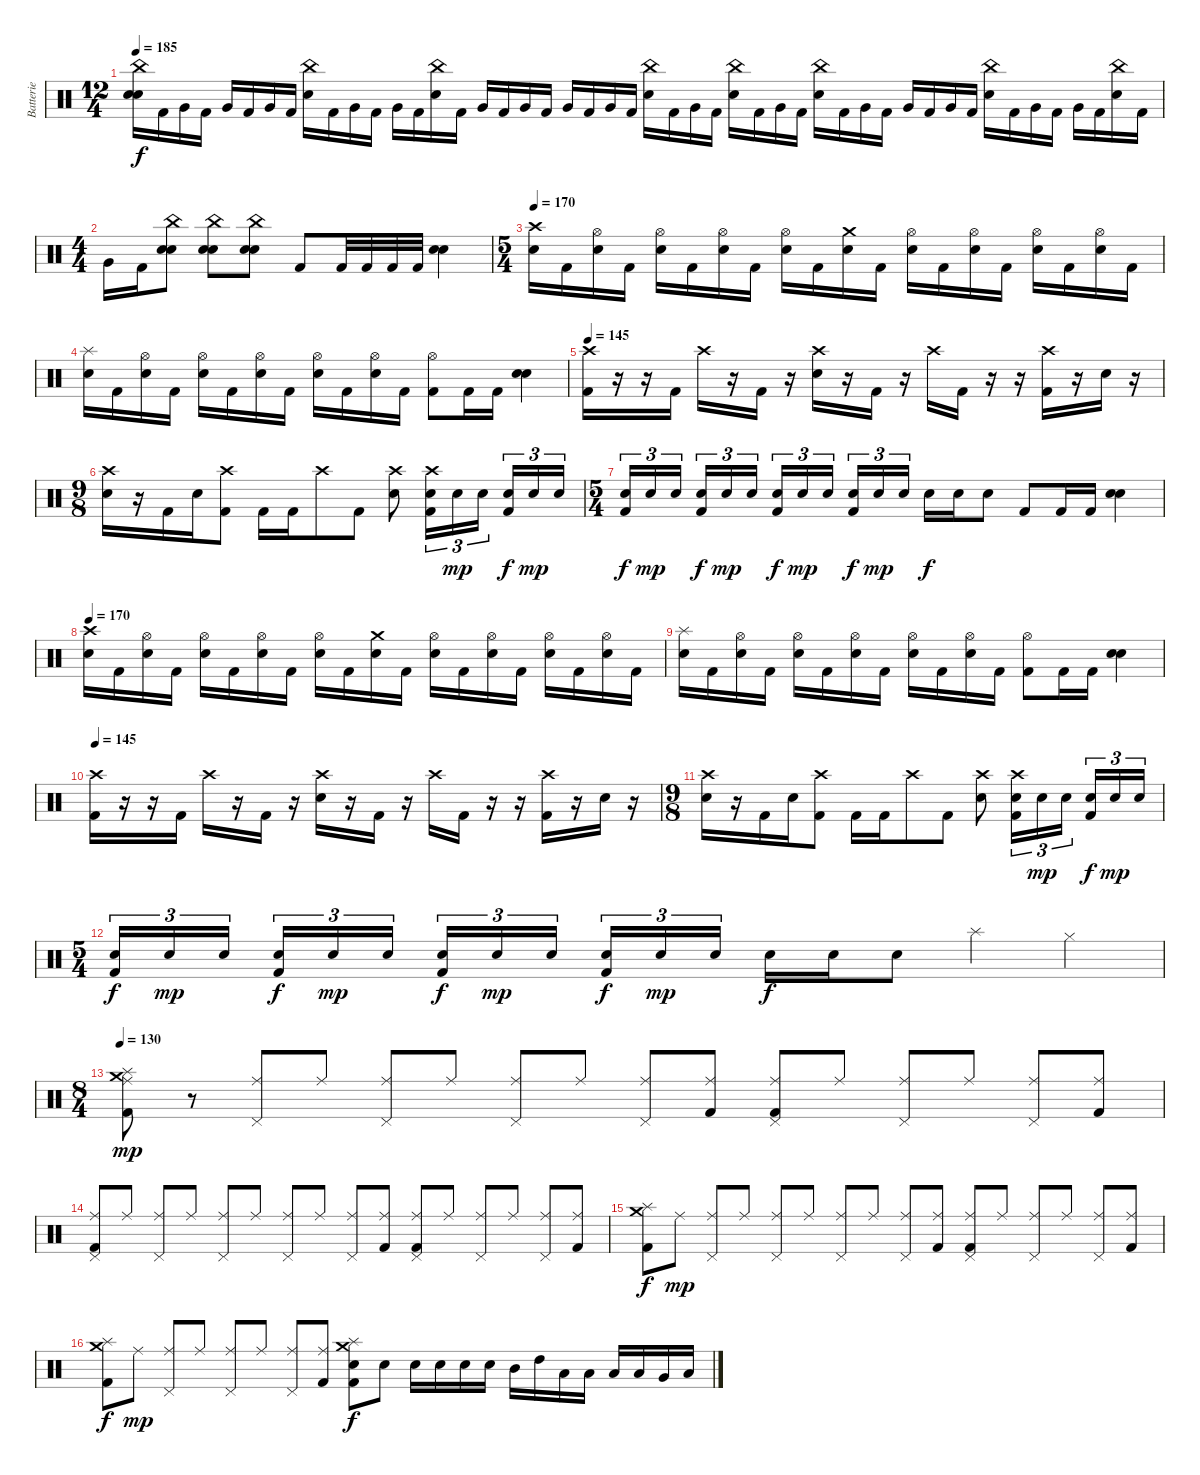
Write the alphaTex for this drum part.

\track ("Batterie" "Batterie") {instrument percussion}
\staff {score}
\articulation defaults
\ts (12 4)
\tempo 185
\clef neutral
\ks c
("China (hit)" "Electric Snare (hit)" "Electric Snare (hit)").16{dy f} "Kick (hit) 2".16 "Very Low Tom (hit)".16 "Kick (hit) 2".16 "Very Low Tom (hit)".16 "Kick (hit) 2".16 "Very Low Tom (hit)".16 "Kick (hit) 2".16 ("China (hit)" "Electric Snare (hit)").16 "Kick (hit) 2".16 "Very Low Tom (hit)".16 "Kick (hit) 2".16 "Very Low Tom (hit)".16 "Kick (hit) 2".16 ("China (hit)" "Electric Snare (hit)").16 "Kick (hit) 2".16 "Very Low Tom (hit)".16 "Kick (hit) 2".16 "Very Low Tom (hit)".16 "Kick (hit) 2".16 "Very Low Tom (hit)".16 "Kick (hit) 2".16 "Very Low Tom (hit)".16 "Kick (hit) 2".16 ("China (hit)" "Electric Snare (hit)").16 "Kick (hit) 2".16 "Very Low Tom (hit)".16 "Kick (hit) 2".16 ("China (hit)" "Electric Snare (hit)").16 "Kick (hit) 2".16 "Very Low Tom (hit)".16 "Kick (hit) 2".16 ("China (hit)" "Electric Snare (hit)").16 "Kick (hit) 2".16 "Very Low Tom (hit)".16 "Kick (hit) 2".16 "Very Low Tom (hit)".16 "Kick (hit) 2".16 "Very Low Tom (hit)".16 "Kick (hit) 2".16 ("China (hit)" "Electric Snare (hit)").16 "Kick (hit) 2".16 "Very Low Tom (hit)".16 "Kick (hit) 2".16 "Very Low Tom (hit)".16 "Kick (hit) 2".16 ("China (hit)" "Electric Snare (hit)").16 "Kick (hit) 2".16 |
\ts (4 4)
"Very Low Tom (hit)".16 "Kick (hit) 2".16 ("China (hit)" "Electric Snare (hit)" "Electric Snare (hit)").8 ("China (hit)" "Electric Snare (hit)" "Electric Snare (hit)").8 ("China (hit)" "Electric Snare (hit)" "Electric Snare (hit)").8 "Kick (hit) 2".8 "Kick (hit) 2".32 "Kick (hit) 2".32 "Kick (hit) 2".32 "Kick (hit) 2".32 ("Electric Snare (hit)" "Electric Snare (hit)").4 |
\ts (5 4)
\tempo 170
("Crash high (hit)" "Electric Snare (hit)").16 "Kick (hit) 2".16 ("Hi-Hat (open)" "Electric Snare (hit)").16 "Kick (hit) 2".16 ("Hi-Hat (open)" "Electric Snare (hit)").16 "Kick (hit) 2".16 ("Hi-Hat (open)" "Electric Snare (hit)").16 "Kick (hit) 2".16 ("Hi-Hat (open)" "Electric Snare (hit)").16 "Kick (hit) 2".16 ("Crash medium (hit)" "Electric Snare (hit)").16 "Kick (hit) 2".16 ("Hi-Hat (open)" "Electric Snare (hit)").16 "Kick (hit) 2".16 ("Hi-Hat (open)" "Electric Snare (hit)").16 "Kick (hit) 2".16 ("Hi-Hat (open)" "Electric Snare (hit)").16 "Kick (hit) 2".16 ("Hi-Hat (open)" "Electric Snare (hit)").16 "Kick (hit) 2".16 |
("Splash (hit)" "Electric Snare (hit)").16 "Kick (hit) 2".16 ("Hi-Hat (open)" "Electric Snare (hit)").16 "Kick (hit) 2".16 ("Hi-Hat (open)" "Electric Snare (hit)").16 "Kick (hit) 2".16 ("Hi-Hat (open)" "Electric Snare (hit)").16 "Kick (hit) 2".16 ("Hi-Hat (open)" "Electric Snare (hit)").16 "Kick (hit) 2".16 ("Hi-Hat (open)" "Electric Snare (hit)").16 "Kick (hit) 2".16 ("Hi-Hat (open)" "Kick (hit) 2").8 "Kick (hit) 2".16 "Kick (hit) 2".16 ("Electric Snare (hit)" "Electric Snare (hit)").4 |
\tempo 145
("Crash high (hit)" "Kick (hit) 2").16 r.16 r.16 "Kick (hit) 2".16 "Crash high (hit)".16 r.16 "Kick (hit) 2".16 r.16 ("Crash high (hit)" "Electric Snare (hit)").16 r.16 "Kick (hit) 2".16 r.16 "Crash high (hit)".16 "Kick (hit) 2".16 r.16 r.16 ("Crash high (hit)" "Kick (hit) 2").16 r.16 "Electric Snare (hit)".16 r.16 |
\ts (9 8)
("Crash high (hit)" "Electric Snare (hit)").16 r.16 "Kick (hit) 2".16 "Electric Snare (hit)".16 ("Crash high (hit)" "Kick (hit) 2").8 "Kick (hit) 2".16 "Kick (hit) 2".16 "Crash high (hit)".8 "Kick (hit) 2".8 ("Crash high (hit)" "Electric Snare (hit)").8 ("Crash high (hit)" "Electric Snare (hit)" "Kick (hit) 2").16{tu (3 2)} "Electric Snare (hit)".16{tu (3 2) dy mp} "Electric Snare (hit)".16{tu (3 2) beam splitsecondary} ("Electric Snare (hit)" "Kick (hit) 2").16{tu (3 2) dy f} "Electric Snare (hit)".16{tu (3 2) dy mp} "Electric Snare (hit)".16{tu (3 2)} |
\ts (5 4)
("Electric Snare (hit)" "Kick (hit) 2").16{tu (3 2) dy f} "Electric Snare (hit)".16{tu (3 2) dy mp} "Electric Snare (hit)".16{tu (3 2) beam splitsecondary} ("Electric Snare (hit)" "Kick (hit) 2").16{tu (3 2) dy f} "Electric Snare (hit)".16{tu (3 2) dy mp} "Electric Snare (hit)".16{tu (3 2)} ("Electric Snare (hit)" "Kick (hit) 2").16{tu (3 2) dy f} "Electric Snare (hit)".16{tu (3 2) dy mp} "Electric Snare (hit)".16{tu (3 2) beam splitsecondary} ("Electric Snare (hit)" "Kick (hit) 2").16{tu (3 2) dy f} "Electric Snare (hit)".16{tu (3 2) dy mp} "Electric Snare (hit)".16{tu (3 2)} "Electric Snare (hit)".16{dy f} "Electric Snare (hit)".16 "Electric Snare (hit)".8 "Kick (hit) 2".8 "Kick (hit) 2".16 "Kick (hit) 2".16 ("Electric Snare (hit)" "Electric Snare (hit)").4 |
\tempo 170
("Crash high (hit)" "Electric Snare (hit)").16 "Kick (hit) 2".16 ("Hi-Hat (open)" "Electric Snare (hit)").16 "Kick (hit) 2".16 ("Hi-Hat (open)" "Electric Snare (hit)").16 "Kick (hit) 2".16 ("Hi-Hat (open)" "Electric Snare (hit)").16 "Kick (hit) 2".16 ("Hi-Hat (open)" "Electric Snare (hit)").16 "Kick (hit) 2".16 ("Crash medium (hit)" "Electric Snare (hit)").16 "Kick (hit) 2".16 ("Hi-Hat (open)" "Electric Snare (hit)").16 "Kick (hit) 2".16 ("Hi-Hat (open)" "Electric Snare (hit)").16 "Kick (hit) 2".16 ("Hi-Hat (open)" "Electric Snare (hit)").16 "Kick (hit) 2".16 ("Hi-Hat (open)" "Electric Snare (hit)").16 "Kick (hit) 2".16 |
("Splash (hit)" "Electric Snare (hit)").16 "Kick (hit) 2".16 ("Hi-Hat (open)" "Electric Snare (hit)").16 "Kick (hit) 2".16 ("Hi-Hat (open)" "Electric Snare (hit)").16 "Kick (hit) 2".16 ("Hi-Hat (open)" "Electric Snare (hit)").16 "Kick (hit) 2".16 ("Hi-Hat (open)" "Electric Snare (hit)").16 "Kick (hit) 2".16 ("Hi-Hat (open)" "Electric Snare (hit)").16 "Kick (hit) 2".16 ("Hi-Hat (open)" "Kick (hit) 2").8 "Kick (hit) 2".16 "Kick (hit) 2".16 ("Electric Snare (hit)" "Electric Snare (hit)").4 |
\tempo 145
("Crash high (hit)" "Kick (hit) 2").16 r.16 r.16 "Kick (hit) 2".16 "Crash high (hit)".16 r.16 "Kick (hit) 2".16 r.16 ("Crash high (hit)" "Electric Snare (hit)").16 r.16 "Kick (hit) 2".16 r.16 "Crash high (hit)".16 "Kick (hit) 2".16 r.16 r.16 ("Crash high (hit)" "Kick (hit) 2").16 r.16 "Electric Snare (hit)".16 r.16 |
\ts (9 8)
("Crash high (hit)" "Electric Snare (hit)").16 r.16 "Kick (hit) 2".16 "Electric Snare (hit)".16 ("Crash high (hit)" "Kick (hit) 2").8 "Kick (hit) 2".16 "Kick (hit) 2".16 "Crash high (hit)".8 "Kick (hit) 2".8 ("Crash high (hit)" "Electric Snare (hit)").8 ("Crash high (hit)" "Electric Snare (hit)" "Kick (hit) 2").16{tu (3 2)} "Electric Snare (hit)".16{tu (3 2) dy mp} "Electric Snare (hit)".16{tu (3 2) beam splitsecondary} ("Electric Snare (hit)" "Kick (hit) 2").16{tu (3 2) dy f} "Electric Snare (hit)".16{tu (3 2) dy mp} "Electric Snare (hit)".16{tu (3 2)} |
\ts (5 4)
("Electric Snare (hit)" "Kick (hit) 2").16{tu (3 2) dy f} "Electric Snare (hit)".16{tu (3 2) dy mp} "Electric Snare (hit)".16{tu (3 2) beam splitsecondary} ("Electric Snare (hit)" "Kick (hit) 2").16{tu (3 2) dy f} "Electric Snare (hit)".16{tu (3 2) dy mp} "Electric Snare (hit)".16{tu (3 2)} ("Electric Snare (hit)" "Kick (hit) 2").16{tu (3 2) dy f} "Electric Snare (hit)".16{tu (3 2) dy mp} "Electric Snare (hit)".16{tu (3 2) beam splitsecondary} ("Electric Snare (hit)" "Kick (hit) 2").16{tu (3 2) dy f} "Electric Snare (hit)".16{tu (3 2) dy mp} "Electric Snare (hit)".16{tu (3 2)} "Electric Snare (hit)".16{dy f} "Electric Snare (hit)".16 "Electric Snare (hit)".8 "Splash (hit)".4 "Hi-Hat (closed)".4 |
\ts (8 4)
\tempo 130
("Crash medium (hit)" "Ride (middle)" "Splash (hit)" "Kick (hit) 2").8{dy mp} r.8 ("Pedal Hi-Hat (hit)" "Ride (middle)").8 "Ride (middle)".8 ("Pedal Hi-Hat (hit)" "Ride (middle)").8 "Ride (middle)".8 ("Pedal Hi-Hat (hit)" "Ride (middle)").8 "Ride (middle)".8 ("Pedal Hi-Hat (hit)" "Ride (middle)").8 ("Ride (middle)" "Kick (hit) 2").8 ("Pedal Hi-Hat (hit)" "Ride (middle)" "Kick (hit) 2").8 "Ride (middle)".8 ("Pedal Hi-Hat (hit)" "Ride (middle)").8 "Ride (middle)".8 ("Pedal Hi-Hat (hit)" "Ride (middle)").8 ("Ride (middle)" "Kick (hit) 2").8 |
("Pedal Hi-Hat (hit)" "Ride (middle)" "Kick (hit) 2").8 "Ride (middle)".8 ("Pedal Hi-Hat (hit)" "Ride (middle)").8 "Ride (middle)".8 ("Pedal Hi-Hat (hit)" "Ride (middle)").8 "Ride (middle)".8 ("Pedal Hi-Hat (hit)" "Ride (middle)").8 "Ride (middle)".8 ("Pedal Hi-Hat (hit)" "Ride (middle)").8 ("Ride (middle)" "Kick (hit) 2").8 ("Pedal Hi-Hat (hit)" "Ride (middle)" "Kick (hit) 2").8 "Ride (middle)".8 ("Pedal Hi-Hat (hit)" "Ride (middle)").8 "Ride (middle)".8 ("Pedal Hi-Hat (hit)" "Ride (middle)").8 ("Ride (middle)" "Kick (hit) 2").8 |
("Crash medium (hit)" "Splash (hit)" "Kick (hit) 2").8{dy f} "Ride (middle)".8{dy mp} ("Pedal Hi-Hat (hit)" "Ride (middle)").8 "Ride (middle)".8 ("Pedal Hi-Hat (hit)" "Ride (middle)").8 "Ride (middle)".8 ("Pedal Hi-Hat (hit)" "Ride (middle)").8 "Ride (middle)".8 ("Pedal Hi-Hat (hit)" "Ride (middle)").8 ("Ride (middle)" "Kick (hit) 2").8 ("Pedal Hi-Hat (hit)" "Ride (middle)" "Kick (hit) 2").8 "Ride (middle)".8 ("Pedal Hi-Hat (hit)" "Ride (middle)").8 "Ride (middle)".8 ("Pedal Hi-Hat (hit)" "Ride (middle)").8 ("Ride (middle)" "Kick (hit) 2").8 |
("Crash medium (hit)" "Splash (hit)" "Kick (hit) 2").8{dy f} "Ride (middle)".8{dy mp} ("Pedal Hi-Hat (hit)" "Ride (middle)").8 "Ride (middle)".8 ("Pedal Hi-Hat (hit)" "Ride (middle)").8 "Ride (middle)".8 ("Pedal Hi-Hat (hit)" "Ride (middle)").8 ("Ride (middle)" "Kick (hit) 2").8 ("Crash medium (hit)" "Splash (hit)" "Electric Snare (hit)" "Kick (hit) 2").8{dy f} "Electric Snare (hit)".8 "Electric Snare (hit)".16 "Electric Snare (hit)".16 "Electric Snare (hit)".16 "Electric Snare (hit)".16 "Mid Tom (hit)".16 "High Tom (hit)".16 "Low Tom (hit)".16 "Low Tom (hit)".16 "Low Tom (hit)".16 "Low Tom (hit)".16 "Very Low Tom (hit)".16 "Low Floor Tom (hit)".16
